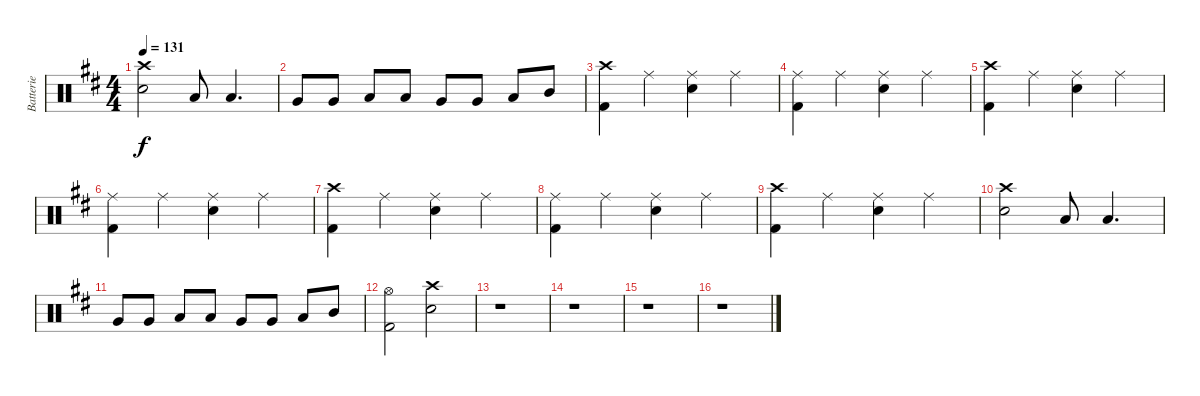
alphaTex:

\track ("Batterie" "Batterie") {instrument percussion}
\staff {score}
\articulation defaults
\ts (4 4)
\tempo 131
\clef neutral
\ks d
("Crash high (hit)" "Snare (hit) 2").2{dy f} "Low Tom (hit)".8 "Low Tom (hit)".4{d} |
"Very Low Tom (hit)".8 "Very Low Tom (hit)".8 "Low Floor Tom (hit)".8 "Low Floor Tom (hit)".8 "Very Low Tom (hit)".8 "Very Low Tom (hit)".8 "Low Tom (hit)".8 "Mid Tom (hit)".8 |
("Crash high (hit)" "Kick (hit) 2").4 "Ride (middle)".4 ("Ride (middle)" "Snare (hit) 2").4 "Ride (middle)".4 |
("Ride (middle)" "Kick (hit) 2").4 "Ride (middle)".4 ("Ride (middle)" "Snare (hit) 2").4 "Ride (middle)".4 |
("Crash high (hit)" "Kick (hit) 2").4 "Ride (middle)".4 ("Ride (middle)" "Snare (hit) 2").4 "Ride (middle)".4 |
("Ride (middle)" "Kick (hit) 2").4 "Ride (middle)".4 ("Ride (middle)" "Snare (hit) 2").4 "Ride (middle)".4 |
("Crash high (hit)" "Kick (hit) 2").4 "Ride (middle)".4 ("Ride (middle)" "Snare (hit) 2").4 "Ride (middle)".4 |
("Ride (middle)" "Kick (hit) 2").4 "Ride (middle)".4 ("Ride (middle)" "Snare (hit) 2").4 "Ride (middle)".4 |
("Crash high (hit)" "Kick (hit) 2").4 "Ride (middle)".4 ("Ride (middle)" "Snare (hit) 2").4 "Ride (middle)".4 |
("Crash high (hit)" "Snare (hit) 2").2 "Low Tom (hit)".8 "Low Tom (hit)".4{d} |
"Very Low Tom (hit)".8 "Very Low Tom (hit)".8 "Low Floor Tom (hit)".8 "Low Floor Tom (hit)".8 "Very Low Tom (hit)".8 "Very Low Tom (hit)".8 "Low Tom (hit)".8 "Mid Tom (hit)".8 |
("Hi-Hat (open)" "Kick (hit) 2").2 ("Crash high (hit)" "Snare (hit) 2").2 |
r.1 |
r.1 |
r.1 |
r.1
